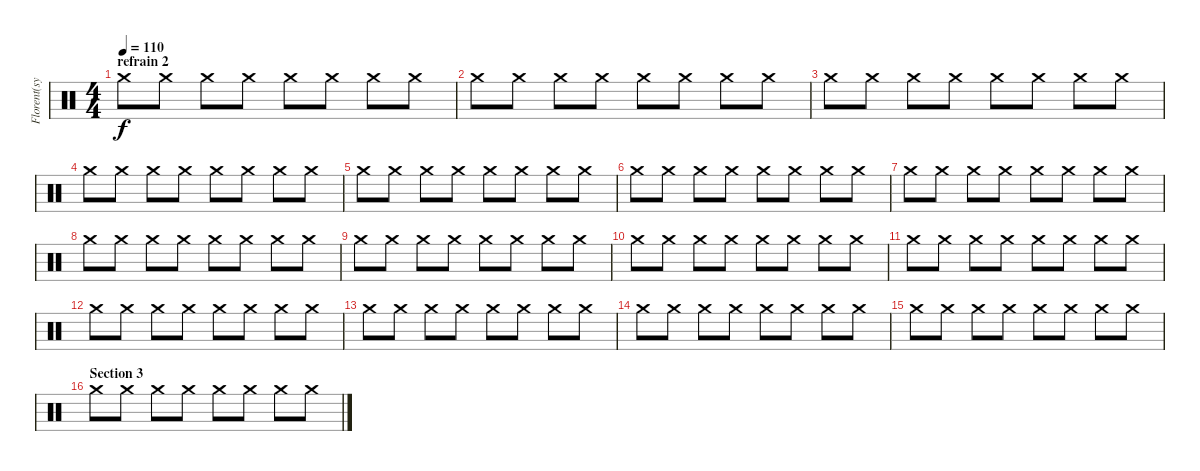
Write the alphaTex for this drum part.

\track ("Florent(symbales)" "Florent(sy") {instrument percussion}
\staff {score}
\articulation defaults
\ts (4 4)
\section ("" "refrain 2")
\tempo 110
\clef neutral
\ks c "Crash medium (hit)".8{dy f} "Crash medium (hit)".8 "Crash medium (hit)".8 "Crash medium (hit)".8 "Crash medium (hit)".8 "Crash medium (hit)".8 "Crash medium (hit)".8 "Crash medium (hit)".8
|
"Crash medium (hit)".8 "Crash medium (hit)".8 "Crash medium (hit)".8 "Crash medium (hit)".8 "Crash medium (hit)".8 "Crash medium (hit)".8 "Crash medium (hit)".8 "Crash medium (hit)".8 |
"Crash medium (hit)".8 "Crash medium (hit)".8 "Crash medium (hit)".8 "Crash medium (hit)".8 "Crash medium (hit)".8 "Crash medium (hit)".8 "Crash medium (hit)".8 "Crash medium (hit)".8 |
"Crash medium (hit)".8 "Crash medium (hit)".8 "Crash medium (hit)".8 "Crash medium (hit)".8 "Crash medium (hit)".8 "Crash medium (hit)".8 "Crash medium (hit)".8 "Crash medium (hit)".8 |
"Crash medium (hit)".8 "Crash medium (hit)".8 "Crash medium (hit)".8 "Crash medium (hit)".8 "Crash medium (hit)".8 "Crash medium (hit)".8 "Crash medium (hit)".8 "Crash medium (hit)".8 |
"Crash medium (hit)".8 "Crash medium (hit)".8 "Crash medium (hit)".8 "Crash medium (hit)".8 "Crash medium (hit)".8 "Crash medium (hit)".8 "Crash medium (hit)".8 "Crash medium (hit)".8 |
"Crash medium (hit)".8 "Crash medium (hit)".8 "Crash medium (hit)".8 "Crash medium (hit)".8 "Crash medium (hit)".8 "Crash medium (hit)".8 "Crash medium (hit)".8 "Crash medium (hit)".8 |
"Crash medium (hit)".8 "Crash medium (hit)".8 "Crash medium (hit)".8 "Crash medium (hit)".8 "Crash medium (hit)".8 "Crash medium (hit)".8 "Crash medium (hit)".8 "Crash medium (hit)".8 |
"Crash medium (hit)".8 "Crash medium (hit)".8 "Crash medium (hit)".8 "Crash medium (hit)".8 "Crash medium (hit)".8 "Crash medium (hit)".8 "Crash medium (hit)".8 "Crash medium (hit)".8 |
"Crash medium (hit)".8 "Crash medium (hit)".8 "Crash medium (hit)".8 "Crash medium (hit)".8 "Crash medium (hit)".8 "Crash medium (hit)".8 "Crash medium (hit)".8 "Crash medium (hit)".8 |
"Crash medium (hit)".8 "Crash medium (hit)".8 "Crash medium (hit)".8 "Crash medium (hit)".8 "Crash medium (hit)".8 "Crash medium (hit)".8 "Crash medium (hit)".8 "Crash medium (hit)".8 |
"Crash medium (hit)".8 "Crash medium (hit)".8 "Crash medium (hit)".8 "Crash medium (hit)".8 "Crash medium (hit)".8 "Crash medium (hit)".8 "Crash medium (hit)".8 "Crash medium (hit)".8 |
"Crash medium (hit)".8 "Crash medium (hit)".8 "Crash medium (hit)".8 "Crash medium (hit)".8 "Crash medium (hit)".8 "Crash medium (hit)".8 "Crash medium (hit)".8 "Crash medium (hit)".8 |
"Crash medium (hit)".8 "Crash medium (hit)".8 "Crash medium (hit)".8 "Crash medium (hit)".8 "Crash medium (hit)".8 "Crash medium (hit)".8 "Crash medium (hit)".8 "Crash medium (hit)".8 |
"Crash medium (hit)".8 "Crash medium (hit)".8 "Crash medium (hit)".8 "Crash medium (hit)".8 "Crash medium (hit)".8 "Crash medium (hit)".8 "Crash medium (hit)".8 "Crash medium (hit)".8 |
\section ("" "Section 3")
"Crash medium (hit)".8 "Crash medium (hit)".8 "Crash medium (hit)".8 "Crash medium (hit)".8 "Crash medium (hit)".8 "Crash medium (hit)".8 "Crash medium (hit)".8 "Crash medium (hit)".8
